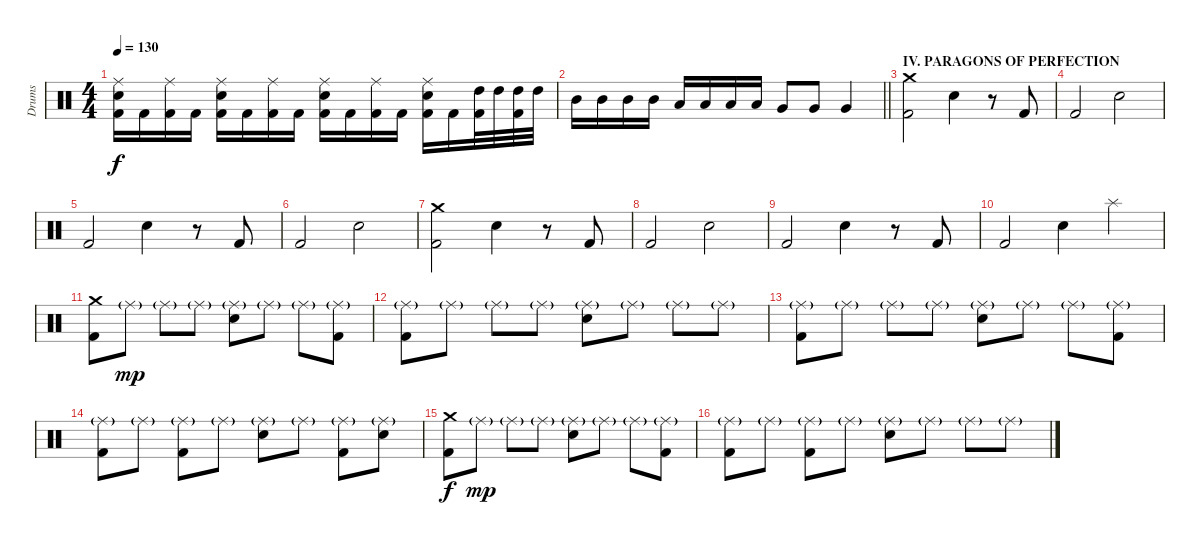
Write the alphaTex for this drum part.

\track ("Drums" "Drums") {instrument percussion}
\staff {score}
\articulation defaults
\ts (4 4)
\tempo 130
\clef neutral
\ks c
("Ride (middle)" "Snare (hit) 2" "Kick (hit) 2").16{dy f} "Kick (hit) 2".16 ("Ride (middle)" "Kick (hit) 2").16 "Kick (hit) 2".16 ("Ride (middle)" "Snare (hit) 2" "Kick (hit) 2").16 "Kick (hit) 2".16 ("Ride (middle)" "Kick (hit) 2").16 "Kick (hit) 2".16 ("Ride (middle)" "Snare (hit) 2" "Kick (hit) 2").16 "Kick (hit) 2".16 ("Ride (middle)" "Kick (hit) 2").16 "Kick (hit) 2".16 ("Ride (middle)" "Snare (hit) 2" "Kick (hit) 2").16 "Kick (hit) 2".16 ("High Tom (hit)" "Kick (hit) 2").32 "High Tom (hit)".32 ("High Tom (hit)" "Kick (hit) 2").32 "High Tom (hit)".32 |
\barLineRight lightlight "Mid Tom (hit)".16 "Mid Tom (hit)".16 "Mid Tom (hit)".16 "Mid Tom (hit)".16 "Low Tom (hit)".16 "Low Tom (hit)".16 "Low Tom (hit)".16 "Low Tom (hit)".16 "Very Low Tom (hit)".8 "Very Low Tom (hit)".8 "Very Low Tom (hit)".4
|
\section ("" "IV. PARAGONS OF PERFECTION")
("Crash medium (hit)" "Kick (hit) 2").2 "Snare (hit) 2".4 r.8 "Kick (hit) 2".8 |
"Kick (hit) 2".2 "Snare (hit) 2".2 |
"Kick (hit) 2".2 "Snare (hit) 2".4 r.8 "Kick (hit) 2".8 |
"Kick (hit) 2".2 "Snare (hit) 2".2 |
("Crash medium (hit)" "Kick (hit) 2").2 "Snare (hit) 2".4 r.8 "Kick (hit) 2".8 |
"Kick (hit) 2".2 "Snare (hit) 2".2 |
"Kick (hit) 2".2 "Snare (hit) 2".4 r.8 "Kick (hit) 2".8 |
"Kick (hit) 2".2 "Snare (hit) 2".4 "Splash (hit)".4 |
("Crash medium (hit)" "Kick (hit) 2").8 "Ride (middle)"{g}.8{dy mp} "Ride (middle)"{g}.8 "Ride (middle)"{g}.8 ("Ride (middle)"{g} "Snare (hit) 2").8 "Ride (middle)"{g}.8 "Ride (middle)"{g}.8 ("Ride (middle)"{g} "Kick (hit) 2").8 |
("Ride (middle)"{g} "Kick (hit) 2").8 "Ride (middle)"{g}.8 "Ride (middle)"{g}.8 "Ride (middle)"{g}.8 ("Ride (middle)"{g} "Snare (hit) 2").8 "Ride (middle)"{g}.8 "Ride (middle)"{g}.8 "Ride (middle)"{g}.8 |
("Ride (middle)"{g} "Kick (hit) 2").8 "Ride (middle)"{g}.8 "Ride (middle)"{g}.8 "Ride (middle)"{g}.8 ("Ride (middle)"{g} "Snare (hit) 2").8 "Ride (middle)"{g}.8 "Ride (middle)"{g}.8 ("Ride (middle)"{g} "Kick (hit) 2").8 |
("Ride (middle)"{g} "Kick (hit) 2").8 "Ride (middle)"{g}.8 ("Ride (middle)"{g} "Kick (hit) 2").8 "Ride (middle)"{g}.8 ("Ride (middle)"{g} "Snare (hit) 2").8 "Ride (middle)"{g}.8 ("Ride (middle)"{g} "Kick (hit) 2").8 ("Ride (middle)"{g} "Snare (hit) 2").8 |
("Crash medium (hit)" "Kick (hit) 2").8{dy f} "Ride (middle)"{g}.8{dy mp} "Ride (middle)"{g}.8 "Ride (middle)"{g}.8 ("Ride (middle)"{g} "Snare (hit) 2").8 "Ride (middle)"{g}.8 "Ride (middle)"{g}.8 ("Ride (middle)"{g} "Kick (hit) 2").8 |
("Ride (middle)"{g} "Kick (hit) 2").8 "Ride (middle)"{g}.8 ("Ride (middle)"{g} "Kick (hit) 2").8 "Ride (middle)"{g}.8 ("Ride (middle)"{g} "Snare (hit) 2").8 "Ride (middle)"{g}.8 "Ride (middle)"{g}.8 "Ride (middle)"{g}.8
